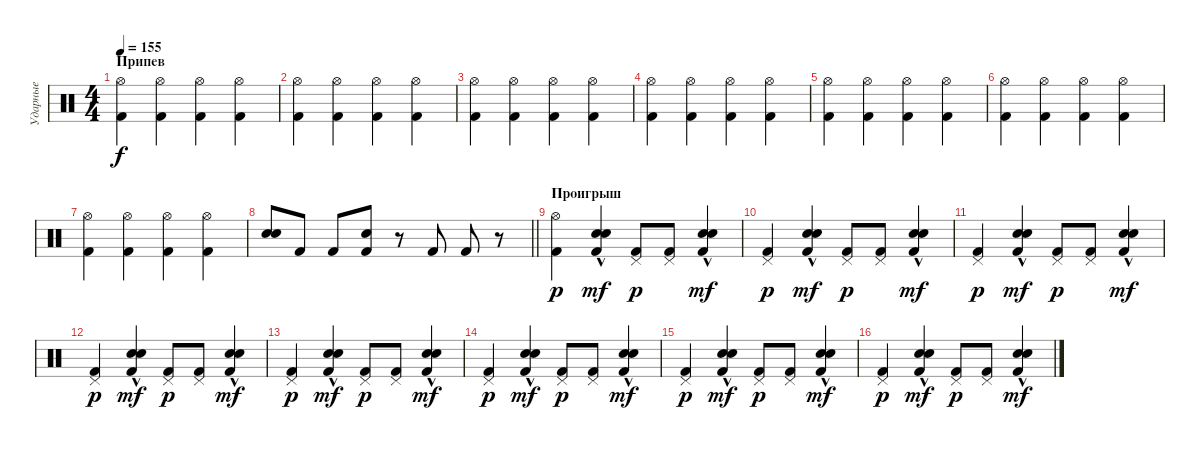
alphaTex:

\track ("Ударные" "Ударные") {instrument percussion}
\staff {score}
\articulation defaults
\ts (4 4)
\section ("" "Припев")
\tempo 155
\clef neutral
\ks c
("Hi-Hat (open)" "Kick (hit) 2").4{dy f} ("Hi-Hat (open)" "Kick (hit) 2").4 ("Hi-Hat (open)" "Kick (hit) 2").4 ("Hi-Hat (open)" "Kick (hit) 2").4 |
("Hi-Hat (open)" "Kick (hit) 2").4 ("Hi-Hat (open)" "Kick (hit) 2").4 ("Hi-Hat (open)" "Kick (hit) 2").4 ("Hi-Hat (open)" "Kick (hit) 2").4 |
("Hi-Hat (open)" "Kick (hit) 2").4 ("Hi-Hat (open)" "Kick (hit) 2").4 ("Hi-Hat (open)" "Kick (hit) 2").4 ("Hi-Hat (open)" "Kick (hit) 2").4 |
("Hi-Hat (open)" "Kick (hit) 2").4 ("Hi-Hat (open)" "Kick (hit) 2").4 ("Hi-Hat (open)" "Kick (hit) 2").4 ("Hi-Hat (open)" "Kick (hit) 2").4 |
("Hi-Hat (open)" "Kick (hit) 2").4 ("Hi-Hat (open)" "Kick (hit) 2").4 ("Hi-Hat (open)" "Kick (hit) 2").4 ("Hi-Hat (open)" "Kick (hit) 2").4 |
("Hi-Hat (open)" "Kick (hit) 2").4 ("Hi-Hat (open)" "Kick (hit) 2").4 ("Hi-Hat (open)" "Kick (hit) 2").4 ("Hi-Hat (open)" "Kick (hit) 2").4 |
("Hi-Hat (open)" "Kick (hit) 2").4 ("Hi-Hat (open)" "Kick (hit) 2").4 ("Hi-Hat (open)" "Kick (hit) 2").4 ("Hi-Hat (open)" "Kick (hit) 2").4 |
\barLineRight lightlight
("Snare (hit) 2" "Electric Snare (hit)").8 "Kick (hit) 2".8 "Kick (hit) 2".8 ("Snare (hit) 2" "Kick (hit) 2").8 r.8 "Kick (hit) 2".8 "Kick (hit) 2".8 r.8 |
\section ("" "Проигрыш")
("Kick (hit) 2" "Hi-Hat (open)").4{dy p} ("Electric Snare (hit)"{hac} "Kick (hit) 2" "Snare (hit) 2"{hac}).4{dy mf} ("Pedal Hi-Hat (hit)" "Kick (hit) 2").8{dy p} ("Pedal Hi-Hat (hit)" "Kick (hit) 2").8 ("Electric Snare (hit)"{hac} "Kick (hit) 2" "Snare (hit) 2"{hac}).4{dy mf} |
("Pedal Hi-Hat (hit)" "Kick (hit) 2").4{dy p} ("Electric Snare (hit)"{hac} "Kick (hit) 2" "Snare (hit) 2"{hac}).4{dy mf} ("Pedal Hi-Hat (hit)" "Kick (hit) 2").8{dy p} ("Pedal Hi-Hat (hit)" "Kick (hit) 2").8 ("Electric Snare (hit)"{hac} "Kick (hit) 2" "Snare (hit) 2"{hac}).4{dy mf} |
("Pedal Hi-Hat (hit)" "Kick (hit) 2").4{dy p} ("Electric Snare (hit)"{hac} "Kick (hit) 2" "Snare (hit) 2"{hac}).4{dy mf} ("Pedal Hi-Hat (hit)" "Kick (hit) 2").8{dy p} ("Pedal Hi-Hat (hit)" "Kick (hit) 2").8 ("Electric Snare (hit)"{hac} "Kick (hit) 2" "Snare (hit) 2"{hac}).4{dy mf} |
("Pedal Hi-Hat (hit)" "Kick (hit) 2").4{dy p} ("Electric Snare (hit)"{hac} "Kick (hit) 2" "Snare (hit) 2"{hac}).4{dy mf} ("Pedal Hi-Hat (hit)" "Kick (hit) 2").8{dy p} ("Pedal Hi-Hat (hit)" "Kick (hit) 2").8 ("Electric Snare (hit)"{hac} "Kick (hit) 2" "Snare (hit) 2"{hac}).4{dy mf} |
("Kick (hit) 2" "Pedal Hi-Hat (hit)").4{dy p} ("Electric Snare (hit)"{hac} "Kick (hit) 2" "Snare (hit) 2"{hac}).4{dy mf} ("Pedal Hi-Hat (hit)" "Kick (hit) 2").8{dy p} ("Pedal Hi-Hat (hit)" "Kick (hit) 2").8 ("Electric Snare (hit)"{hac} "Kick (hit) 2" "Snare (hit) 2"{hac}).4{dy mf} |
("Pedal Hi-Hat (hit)" "Kick (hit) 2").4{dy p} ("Electric Snare (hit)"{hac} "Kick (hit) 2" "Snare (hit) 2"{hac}).4{dy mf} ("Pedal Hi-Hat (hit)" "Kick (hit) 2").8{dy p} ("Pedal Hi-Hat (hit)" "Kick (hit) 2").8 ("Electric Snare (hit)"{hac} "Kick (hit) 2" "Snare (hit) 2"{hac}).4{dy mf} |
("Pedal Hi-Hat (hit)" "Kick (hit) 2").4{dy p} ("Electric Snare (hit)"{hac} "Kick (hit) 2" "Snare (hit) 2"{hac}).4{dy mf} ("Pedal Hi-Hat (hit)" "Kick (hit) 2").8{dy p} ("Pedal Hi-Hat (hit)" "Kick (hit) 2").8 ("Electric Snare (hit)"{hac} "Kick (hit) 2" "Snare (hit) 2"{hac}).4{dy mf} |
("Pedal Hi-Hat (hit)" "Kick (hit) 2").4{dy p} ("Electric Snare (hit)"{hac} "Kick (hit) 2" "Snare (hit) 2"{hac}).4{dy mf} ("Pedal Hi-Hat (hit)" "Kick (hit) 2").8{dy p} ("Pedal Hi-Hat (hit)" "Kick (hit) 2").8 ("Electric Snare (hit)"{hac} "Kick (hit) 2" "Snare (hit) 2"{hac}).4{dy mf}
